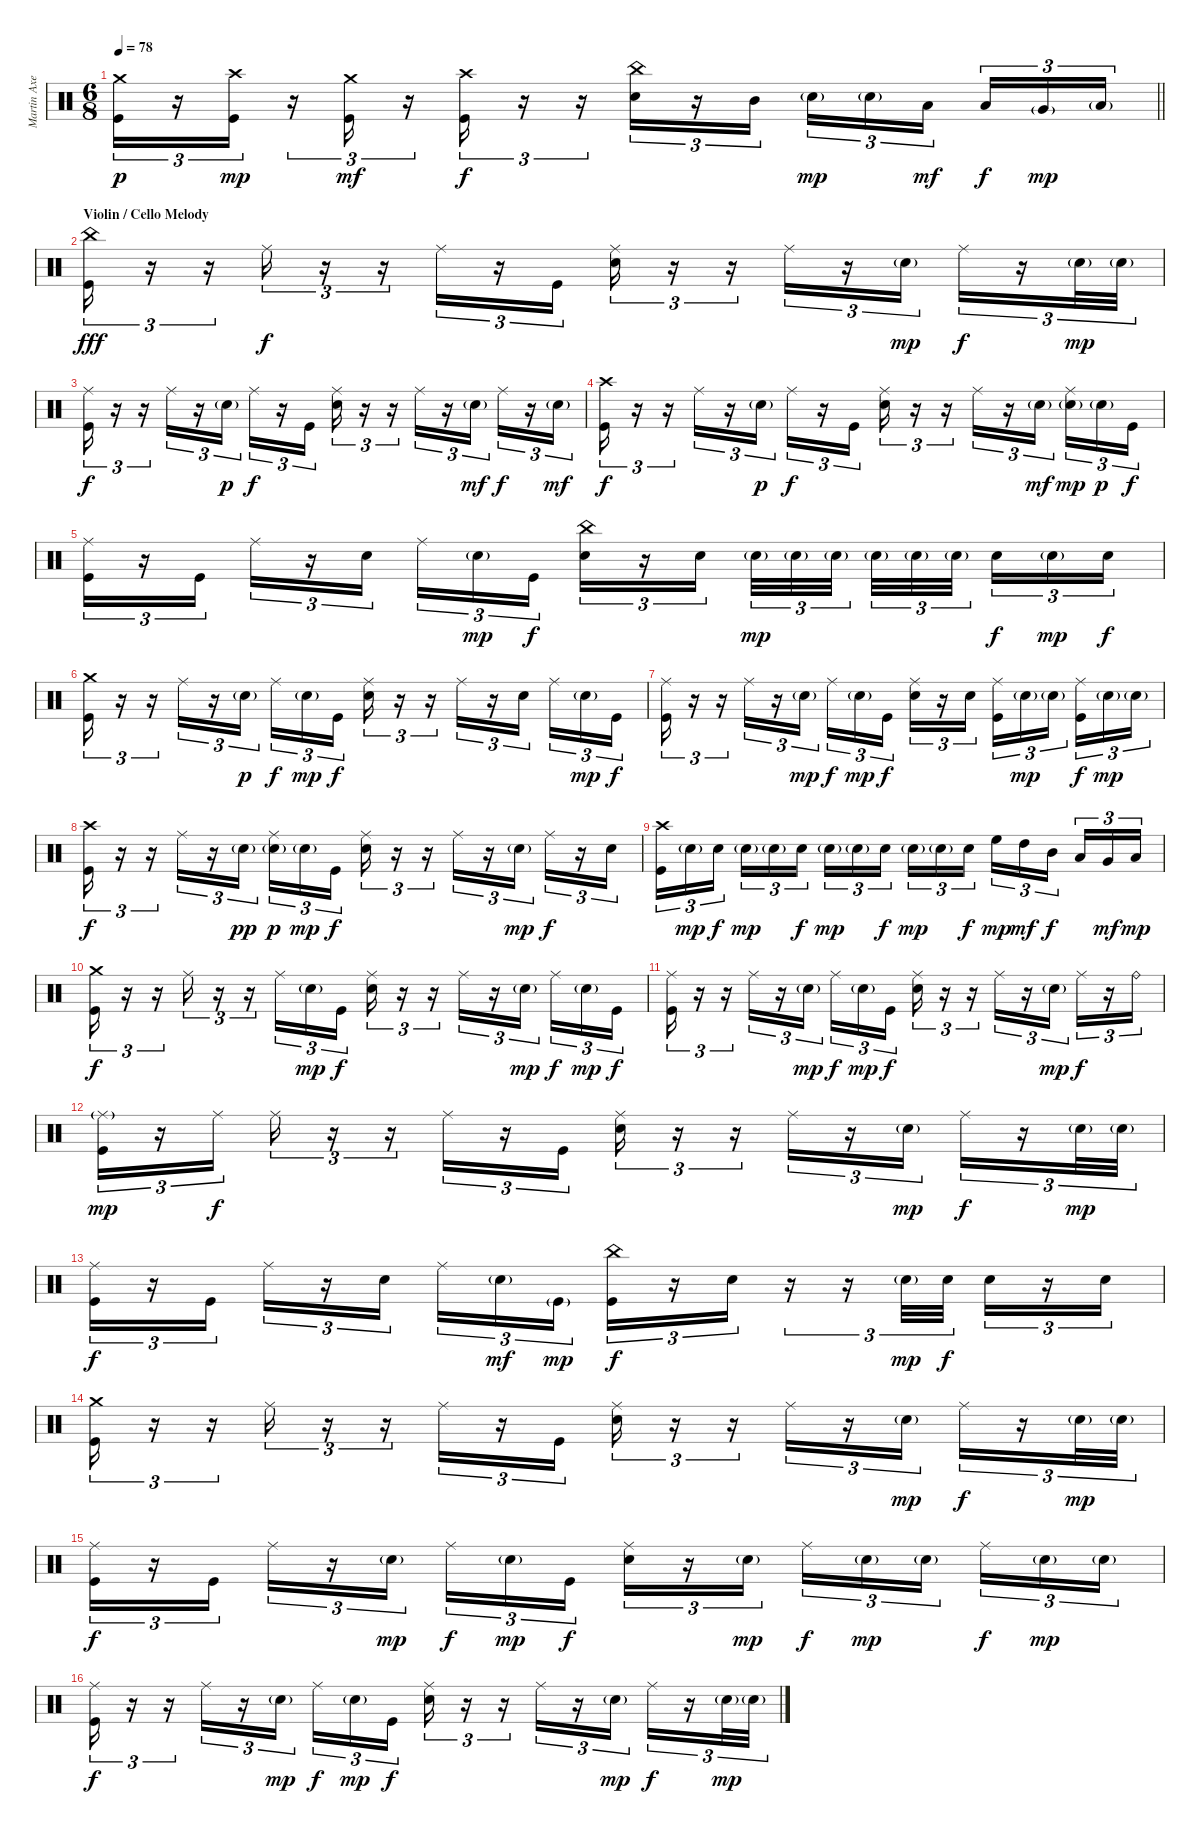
\track ("Martin Axenrot" "Martin Axe") {instrument percussion}
\staff {score}
\articulation defaults
\ts (6 8)
\tempo 78
\clef neutral
\barLineRight lightlight
\ks c
("Crash medium (hit)" "Kick (hit)").16{tu (3 2) dy p} r.16{tu (3 2)} ("Crash high (hit)" "Kick (hit)").16{tu (3 2) dy mp} r.16{tu (3 2)} ("Crash medium (hit)" "Kick (hit)").16{tu (3 2) dy mf} r.16{tu (3 2)} ("Crash high (hit)" "Kick (hit)").16{tu (3 2) dy f} r.16{tu (3 2)} r.16{tu (3 2)} ("China (hit)" "Snare (hit) 2").16{tu (3 2)} r.16{tu (3 2)} "Mid Tom (hit)".16{tu (3 2) beam splitsecondary} "Snare (hit) 2"{g}.16{tu (3 2) dy mp} "Snare (hit) 2"{g}.16{tu (3 2)} "Low Tom (hit)".16{tu (3 2) dy mf beam splitsecondary} "Low Tom (hit)".16{tu (3 2) dy f} "Very Low Tom (hit)"{g}.16{tu (3 2) dy mp} "Low Floor Tom (hit)"{g}.16{tu (3 2)} |
\section ("" "Violin / Cello Melody")
("China (hit)" "Kick (hit)").16{tu (3 2) dy fff} r.16{tu (3 2)} r.16{tu (3 2)} "Ride (middle)".16{tu (3 2) dy f} r.16{tu (3 2)} r.16{tu (3 2)} "Ride (middle)".16{tu (3 2)} r.16{tu (3 2)} "Kick (hit)".16{tu (3 2)} ("Ride (middle)" "Snare (hit) 2").16{tu (3 2)} r.16{tu (3 2)} r.16{tu (3 2)} "Ride (middle)".16{tu (3 2)} r.16{tu (3 2)} "Snare (hit) 2"{g}.16{tu (3 2) dy mp} "Ride (middle)".16{tu (3 2) dy f} r.16{tu (3 2)} "Snare (hit) 2"{g}.32{tu (3 2) dy mp} "Snare (hit) 2"{g}.32{tu (3 2)} |
("Ride (middle)" "Kick (hit)").16{tu (3 2) dy f} r.16{tu (3 2)} r.16{tu (3 2)} "Ride (middle)".16{tu (3 2)} r.16{tu (3 2)} "Snare (hit) 2"{g}.16{tu (3 2) dy p} "Ride (middle)".16{tu (3 2) dy f} r.16{tu (3 2)} "Kick (hit)".16{tu (3 2)} ("Ride (middle)" "Snare (hit) 2").16{tu (3 2)} r.16{tu (3 2)} r.16{tu (3 2)} "Ride (middle)".16{tu (3 2)} r.16{tu (3 2)} "Snare (hit) 2"{g}.16{tu (3 2) dy mf} "Ride (middle)".16{tu (3 2) dy f} r.16{tu (3 2)} "Snare (hit) 2"{g}.16{tu (3 2) dy mf} |
("Crash high (hit)" "Kick (hit)").16{tu (3 2) dy f} r.16{tu (3 2)} r.16{tu (3 2)} "Ride (middle)".16{tu (3 2)} r.16{tu (3 2)} "Snare (hit) 2"{g}.16{tu (3 2) dy p} "Ride (middle)".16{tu (3 2) dy f} r.16{tu (3 2)} "Kick (hit)".16{tu (3 2)} ("Ride (middle)" "Snare (hit) 2").16{tu (3 2)} r.16{tu (3 2)} r.16{tu (3 2)} "Ride (middle)".16{tu (3 2)} r.16{tu (3 2)} "Snare (hit) 2"{g}.16{tu (3 2) dy mf beam splitsecondary} ("Ride (middle)" "Snare (hit) 2"{g}).16{tu (3 2) dy mp} "Snare (hit) 2"{g}.16{tu (3 2) dy p} "Kick (hit)".16{tu (3 2) dy f} |
("Ride (middle)" "Kick (hit)").16{tu (3 2)} r.16{tu (3 2)} "Kick (hit)".16{tu (3 2)} "Ride (middle)".16{tu (3 2)} r.16{tu (3 2)} "Snare (hit) 2".16{tu (3 2) beam splitsecondary} "Ride (middle)".16{tu (3 2)} "Snare (hit) 2"{g}.16{tu (3 2) dy mp} "Kick (hit)".16{tu (3 2) dy f} ("China (hit)" "Snare (hit) 2").16{tu (3 2)} r.16{tu (3 2)} "Snare (hit) 2".16{tu (3 2) beam splitsecondary} "Snare (hit) 2"{g}.32{tu (3 2) dy mp} "Snare (hit) 2"{g}.32{tu (3 2)} "Snare (hit) 2"{g}.32{tu (3 2) beam splitsecondary} "Snare (hit) 2"{g}.32{tu (3 2)} "Snare (hit) 2"{g}.32{tu (3 2)} "Snare (hit) 2"{g}.32{tu (3 2) beam splitsecondary} "Snare (hit) 2".16{tu (3 2) dy f} "Snare (hit) 2"{g}.16{tu (3 2) dy mp} "Snare (hit) 2".16{tu (3 2) dy f} |
("Crash medium (hit)" "Kick (hit)").16{tu (3 2)} r.16{tu (3 2)} r.16{tu (3 2)} "Ride (middle)".16{tu (3 2)} r.16{tu (3 2)} "Snare (hit) 2"{g}.16{tu (3 2) dy p beam splitsecondary} "Ride (middle)".16{tu (3 2) dy f} "Snare (hit) 2"{g}.16{tu (3 2) dy mp} "Kick (hit)".16{tu (3 2) dy f} ("Ride (middle)" "Snare (hit) 2").16{tu (3 2)} r.16{tu (3 2)} r.16{tu (3 2)} "Ride (middle)".16{tu (3 2)} r.16{tu (3 2)} "Snare (hit) 2".16{tu (3 2) beam splitsecondary} "Ride (middle)".16{tu (3 2)} "Snare (hit) 2"{g}.16{tu (3 2) dy mp} "Kick (hit)".16{tu (3 2) dy f} |
("Ride (middle)" "Kick (hit)").16{tu (3 2)} r.16{tu (3 2)} r.16{tu (3 2)} "Ride (middle)".16{tu (3 2)} r.16{tu (3 2)} "Snare (hit) 2"{g}.16{tu (3 2) dy mp beam splitsecondary} "Ride (middle)".16{tu (3 2) dy f} "Snare (hit) 2"{g}.16{tu (3 2) dy mp} "Kick (hit)".16{tu (3 2) dy f} ("Ride (middle)" "Snare (hit) 2").16{tu (3 2)} r.16{tu (3 2)} "Snare (hit) 2".16{tu (3 2) beam splitsecondary} ("Ride (middle)" "Kick (hit)").16{tu (3 2)} "Snare (hit) 2"{g}.16{tu (3 2) dy mp} "Snare (hit) 2"{g}.16{tu (3 2) beam splitsecondary} ("Ride (middle)" "Kick (hit)").16{tu (3 2) dy f} "Snare (hit) 2"{g}.16{tu (3 2) dy mp} "Snare (hit) 2"{g}.16{tu (3 2)} |
("Crash high (hit)" "Kick (hit)").16{tu (3 2) dy f} r.16{tu (3 2)} r.16{tu (3 2)} "Ride (middle)".16{tu (3 2)} r.16{tu (3 2)} "Snare (hit) 2"{g}.16{tu (3 2) dy pp beam splitsecondary} ("Ride (middle)" "Snare (hit) 2"{g}).16{tu (3 2) dy p} "Snare (hit) 2"{g}.16{tu (3 2) dy mp} "Kick (hit)".16{tu (3 2) dy f} ("Ride (middle)" "Snare (hit) 2").16{tu (3 2)} r.16{tu (3 2)} r.16{tu (3 2)} "Ride (middle)".16{tu (3 2)} r.16{tu (3 2)} "Snare (hit) 2"{g}.16{tu (3 2) dy mp} "Ride (middle)".16{tu (3 2) dy f} r.16{tu (3 2)} "Snare (hit) 2".16{tu (3 2)} |
("Crash high (hit)" "Kick (hit)").16{tu (3 2)} "Snare (hit) 2"{g}.16{tu (3 2) dy mp} "Snare (hit) 2".16{tu (3 2) dy f beam splitsecondary} "Snare (hit) 2"{g}.16{tu (3 2) dy mp} "Snare (hit) 2"{g}.16{tu (3 2)} "Snare (hit) 2".16{tu (3 2) dy f beam splitsecondary} "Snare (hit) 2"{g}.16{tu (3 2) dy mp} "Snare (hit) 2"{g}.16{tu (3 2)} "Snare (hit) 2".16{tu (3 2) dy f} "Snare (hit) 2"{g}.16{tu (3 2) dy mp} "Snare (hit) 2"{g}.16{tu (3 2)} "Snare (hit) 2".16{tu (3 2) dy f beam splitsecondary} "High Floor Tom (hit)".16{tu (3 2) dy mp} "High Tom (hit)".16{tu (3 2) dy mf} "Mid Tom (hit)".16{tu (3 2) dy f beam splitsecondary} "Low Tom (hit)".16{tu (3 2)} "Very Low Tom (hit)".16{tu (3 2) dy mf} "Low Floor Tom (hit)".16{tu (3 2) dy mp} |
("Crash medium (hit)" "Kick (hit)").16{tu (3 2) dy f} r.16{tu (3 2)} r.16{tu (3 2)} "Ride (middle)".16{tu (3 2)} r.16{tu (3 2)} r.16{tu (3 2)} "Ride (middle)".16{tu (3 2)} "Snare (hit) 2"{g}.16{tu (3 2) dy mp} "Kick (hit)".16{tu (3 2) dy f} ("Ride (middle)" "Snare (hit) 2").16{tu (3 2)} r.16{tu (3 2)} r.16{tu (3 2)} "Ride (middle)".16{tu (3 2)} r.16{tu (3 2)} "Snare (hit) 2"{g}.16{tu (3 2) dy mp beam splitsecondary} "Ride (middle)".16{tu (3 2) dy f} "Snare (hit) 2"{g}.16{tu (3 2) dy mp} "Kick (hit)".16{tu (3 2) dy f} |
("Ride (middle)" "Kick (hit)").16{tu (3 2)} r.16{tu (3 2)} r.16{tu (3 2)} "Ride (middle)".16{tu (3 2)} r.16{tu (3 2)} "Snare (hit) 2"{g}.16{tu (3 2) dy mp beam splitsecondary} "Ride (middle)".16{tu (3 2) dy f} "Snare (hit) 2"{g}.16{tu (3 2) dy mp} "Kick (hit)".16{tu (3 2) dy f} ("Ride (middle)" "Snare (hit) 2").16{tu (3 2)} r.16{tu (3 2)} r.16{tu (3 2)} "Ride (middle)".16{tu (3 2)} r.16{tu (3 2)} "Snare (hit) 2"{g}.16{tu (3 2) dy mp} "Ride (middle)".16{tu (3 2) dy f} r.16{tu (3 2)} "Ride (bell)".16{tu (3 2)} |
("Ride (middle)"{g} "Kick (hit)").16{tu (3 2) dy mp} r.16{tu (3 2)} "Ride (middle)".16{tu (3 2) dy f} "Ride (middle)".16{tu (3 2)} r.16{tu (3 2)} r.16{tu (3 2)} "Ride (middle)".16{tu (3 2)} r.16{tu (3 2)} "Kick (hit)".16{tu (3 2)} ("Ride (middle)" "Snare (hit) 2").16{tu (3 2)} r.16{tu (3 2)} r.16{tu (3 2)} "Ride (middle)".16{tu (3 2)} r.16{tu (3 2)} "Snare (hit) 2"{g}.16{tu (3 2) dy mp} "Ride (middle)".16{tu (3 2) dy f} r.16{tu (3 2)} "Snare (hit) 2"{g}.32{tu (3 2) dy mp} "Snare (hit) 2"{g}.32{tu (3 2)} |
("Ride (middle)" "Kick (hit)").16{tu (3 2) dy f} r.16{tu (3 2)} "Kick (hit)".16{tu (3 2)} "Ride (middle)".16{tu (3 2)} r.16{tu (3 2)} "Snare (hit) 2".16{tu (3 2) beam splitsecondary} "Ride (middle)".16{tu (3 2)} "Snare (hit) 2"{g}.16{tu (3 2) dy mf} "Kick (hit)"{g}.16{tu (3 2) dy mp} ("China (hit)" "Kick (hit)").16{tu (3 2) dy f} r.16{tu (3 2)} "Snare (hit) 2".16{tu (3 2)} r.16{tu (3 2)} r.16{tu (3 2)} "Snare (hit) 2"{g}.32{tu (3 2) dy mp} "Snare (hit) 2".32{tu (3 2) dy f beam splitsecondary} "Snare (hit) 2".16{tu (3 2)} r.16{tu (3 2)} "Snare (hit) 2".16{tu (3 2)} |
("Crash medium (hit)" "Kick (hit)").16{tu (3 2)} r.16{tu (3 2)} r.16{tu (3 2)} "Ride (middle)".16{tu (3 2)} r.16{tu (3 2)} r.16{tu (3 2)} "Ride (middle)".16{tu (3 2)} r.16{tu (3 2)} "Kick (hit)".16{tu (3 2)} ("Ride (middle)" "Snare (hit) 2").16{tu (3 2)} r.16{tu (3 2)} r.16{tu (3 2)} "Ride (middle)".16{tu (3 2)} r.16{tu (3 2)} "Snare (hit) 2"{g}.16{tu (3 2) dy mp} "Ride (middle)".16{tu (3 2) dy f} r.16{tu (3 2)} "Snare (hit) 2"{g}.32{tu (3 2) dy mp} "Snare (hit) 2"{g}.32{tu (3 2)} |
("Ride (middle)" "Kick (hit)").16{tu (3 2) dy f} r.16{tu (3 2)} "Kick (hit)".16{tu (3 2)} "Ride (middle)".16{tu (3 2)} r.16{tu (3 2)} "Snare (hit) 2"{g}.16{tu (3 2) dy mp beam splitsecondary} "Ride (middle)".16{tu (3 2) dy f} "Snare (hit) 2"{g}.16{tu (3 2) dy mp} "Kick (hit)".16{tu (3 2) dy f} ("Ride (middle)" "Snare (hit) 2").16{tu (3 2)} r.16{tu (3 2)} "Snare (hit) 2"{g}.16{tu (3 2) dy mp beam splitsecondary} "Ride (middle)".16{tu (3 2) dy f} "Snare (hit) 2"{g}.16{tu (3 2) dy mp} "Snare (hit) 2"{g}.16{tu (3 2) beam splitsecondary} "Ride (middle)".16{tu (3 2) dy f} "Snare (hit) 2"{g}.16{tu (3 2) dy mp} "Snare (hit) 2"{g}.16{tu (3 2)} |
("Ride (middle)" "Kick (hit)").16{tu (3 2) dy f} r.16{tu (3 2)} r.16{tu (3 2)} "Ride (middle)".16{tu (3 2)} r.16{tu (3 2)} "Snare (hit) 2"{g}.16{tu (3 2) dy mp beam splitsecondary} "Ride (middle)".16{tu (3 2) dy f} "Snare (hit) 2"{g}.16{tu (3 2) dy mp} "Kick (hit)".16{tu (3 2) dy f} ("Ride (middle)" "Snare (hit) 2").16{tu (3 2)} r.16{tu (3 2)} r.16{tu (3 2)} "Ride (middle)".16{tu (3 2)} r.16{tu (3 2)} "Snare (hit) 2"{g}.16{tu (3 2) dy mp} "Ride (middle)".16{tu (3 2) dy f} r.16{tu (3 2)} "Snare (hit) 2"{g}.32{tu (3 2) dy mp} "Snare (hit) 2"{g}.32{tu (3 2)}
